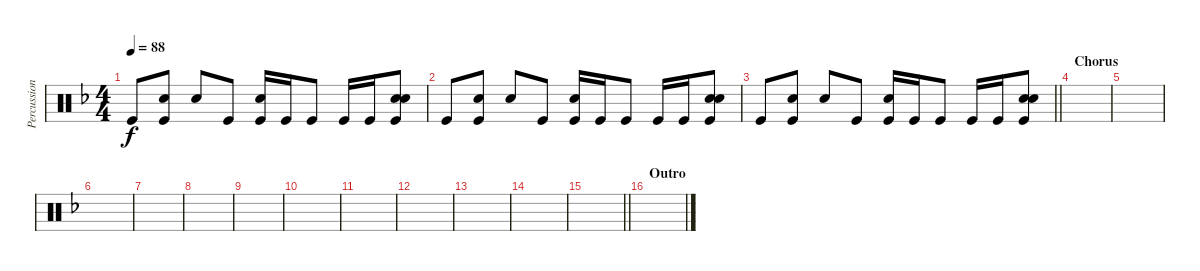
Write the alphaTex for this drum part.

\track ("Percussion" "Percussion") {instrument percussion}
\staff {score}
\articulation defaults
\ts (4 4)
\tempo 88
\clef neutral
\ks f "Kick (hit)".8{dy f}
("Snare (hit)" "Kick (hit)").8 "Electric Snare (hit)".8 "Kick (hit)".8 ("Snare (hit)" "Kick (hit)").16 "Kick (hit)".16 "Kick (hit)".8 "Kick (hit)".16 "Kick (hit)".16 ("Snare (hit)" "Electric Snare (hit)" "Kick (hit)").8 |
"Kick (hit)".8{volume 0} ("Snare (hit)" "Kick (hit)").8 "Electric Snare (hit)".8 "Kick (hit)".8 ("Snare (hit)" "Kick (hit)").16 "Kick (hit)".16 "Kick (hit)".8 "Kick (hit)".16 "Kick (hit)".16 ("Snare (hit)" "Electric Snare (hit)" "Kick (hit)").8 |
\barLineRight lightlight "Kick (hit)".8
("Snare (hit)" "Kick (hit)").8 "Electric Snare (hit)".8 "Kick (hit)".8 ("Snare (hit)" "Kick (hit)").16 "Kick (hit)".16 "Kick (hit)".8 "Kick (hit)".16 "Kick (hit)".16 ("Snare (hit)" "Electric Snare (hit)" "Kick (hit)").8 |
\section ("" "Chorus")
|
|
|
|
|
|
|
|
|
|
|
\barLineRight lightlight
|
\section ("" "Outro")
